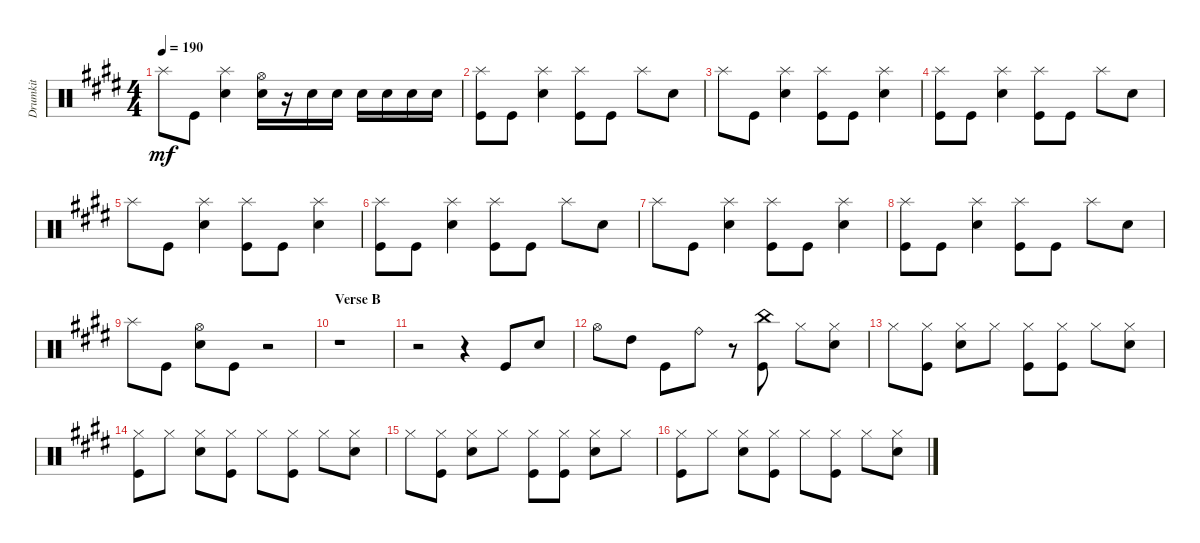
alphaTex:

\track ("Drumkit" "Drumkit") {instrument percussion}
\staff {score}
\articulation defaults
\ts (4 4)
\tempo 190
\clef neutral
\ks e "Splash (hit)".8{dy mf} "Kick (hit)".8
("Splash (hit)" "Snare (hit) 2").4 ("Snare (hit) 2" "Hi-Hat (open)").16 r.16 "Snare (hit) 2".16 "Snare (hit) 2".16 "Snare (hit) 2".16 "Snare (hit) 2".16 "Snare (hit) 2".16 "Snare (hit) 2".16 |
("Splash (hit)" "Kick (hit)").8 "Kick (hit)".8 ("Splash (hit)" "Snare (hit) 2").4 ("Splash (hit)" "Kick (hit)").8 "Kick (hit)".8 "Splash (hit)".8 "Snare (hit) 2".8 |
"Splash (hit)".8 "Kick (hit)".8 ("Splash (hit)" "Snare (hit) 2").4 ("Splash (hit)" "Kick (hit)").8 "Kick (hit)".8 ("Snare (hit) 2" "Splash (hit)").4 |
("Splash (hit)" "Kick (hit)").8 "Kick (hit)".8 ("Splash (hit)" "Snare (hit) 2").4 ("Splash (hit)" "Kick (hit)").8 "Kick (hit)".8 "Splash (hit)".8 "Snare (hit) 2".8 |
"Splash (hit)".8 "Kick (hit)".8 ("Splash (hit)" "Snare (hit) 2").4 ("Splash (hit)" "Kick (hit)").8 "Kick (hit)".8 ("Snare (hit) 2" "Splash (hit)").4 |
("Splash (hit)" "Kick (hit)").8 "Kick (hit)".8 ("Splash (hit)" "Snare (hit) 2").4 ("Splash (hit)" "Kick (hit)").8 "Kick (hit)".8 "Splash (hit)".8 "Snare (hit) 2".8 |
"Splash (hit)".8 "Kick (hit)".8 ("Splash (hit)" "Snare (hit) 2").4 ("Splash (hit)" "Kick (hit)").8 "Kick (hit)".8 ("Snare (hit) 2" "Splash (hit)").4 |
("Splash (hit)" "Kick (hit)").8 "Kick (hit)".8 ("Splash (hit)" "Snare (hit) 2").4 ("Splash (hit)" "Kick (hit)").8 "Kick (hit)".8 "Splash (hit)".8 "Snare (hit) 2".8 |
"Splash (hit)".8 "Kick (hit)".8 ("Hi-Hat (open)" "Snare (hit) 2").8 "Kick (hit)".8 r.2 |
\section ("" "Verse B")
r.1 |
r.2 r.4 "Kick (hit)".8 "Snare (hit) 2".8 |
"Hi-Hat (open)".8 "High Tom (hit)".8 "Kick (hit)".8 "Ride (bell)".8 r.8 ("China (hit)" "Kick (hit)").8 "Hi-Hat (closed)".8 ("Hi-Hat (closed)" "Snare (hit) 2").8 |
"Hi-Hat (closed)".8 ("Hi-Hat (closed)" "Kick (hit)").8 ("Hi-Hat (closed)" "Snare (hit) 2").8 "Hi-Hat (closed)".8 ("Hi-Hat (closed)" "Kick (hit)").8 ("Hi-Hat (closed)" "Kick (hit)").8 "Hi-Hat (closed)".8 ("Hi-Hat (closed)" "Snare (hit) 2").8 |
("Hi-Hat (closed)" "Kick (hit)").8 "Hi-Hat (closed)".8 ("Hi-Hat (closed)" "Snare (hit) 2").8 ("Hi-Hat (closed)" "Kick (hit)").8 "Hi-Hat (closed)".8 ("Hi-Hat (closed)" "Kick (hit)").8 "Hi-Hat (closed)".8 ("Hi-Hat (closed)" "Snare (hit) 2").8 |
"Hi-Hat (closed)".8 ("Kick (hit)" "Hi-Hat (closed)").8 ("Hi-Hat (closed)" "Snare (hit) 2").8 "Hi-Hat (closed)".8 ("Hi-Hat (closed)" "Kick (hit)").8 ("Hi-Hat (closed)" "Kick (hit)").8 ("Hi-Hat (closed)" "Snare (hit) 2").8 "Hi-Hat (closed)".8 |
("Hi-Hat (closed)" "Kick (hit)").8 "Hi-Hat (closed)".8 ("Hi-Hat (closed)" "Snare (hit) 2").8 ("Hi-Hat (closed)" "Kick (hit)").8 "Hi-Hat (closed)".8 ("Hi-Hat (closed)" "Kick (hit)").8 "Hi-Hat (closed)".8 ("Hi-Hat (closed)" "Snare (hit) 2").8
